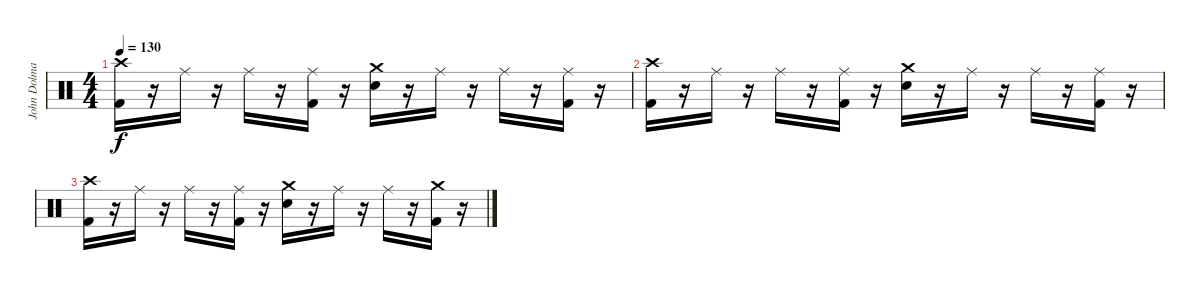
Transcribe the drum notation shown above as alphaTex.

\track ("John Dolmayan" "John Dolma") {instrument percussion}
\staff {score}
\articulation defaults
\ts (4 4)
\tempo 130
\clef neutral
\ks c
("Crash high (hit)" "Kick (hit) 2").16{dy f} r.16 "Ride (middle)".16 r.16 "Ride (middle)".16 r.16 ("Ride (middle)" "Kick (hit) 2").16 r.16 ("Crash medium (hit)" "Electric Snare (hit)").16 r.16 "Ride (middle)".16 r.16 "Ride (middle)".16 r.16 ("Ride (middle)" "Kick (hit) 2").16 r.16 |
("Crash high (hit)" "Kick (hit) 2").16 r.16 "Ride (middle)".16 r.16 "Ride (middle)".16 r.16 ("Ride (middle)" "Kick (hit) 2").16 r.16 ("Crash medium (hit)" "Electric Snare (hit)").16 r.16 "Ride (middle)".16 r.16 "Ride (middle)".16 r.16 ("Ride (middle)" "Kick (hit) 2").16 r.16 |
("Crash high (hit)" "Kick (hit) 2").16 r.16 "Ride (middle)".16 r.16 "Ride (middle)".16 r.16 ("Ride (middle)" "Kick (hit) 2").16 r.16 ("Crash medium (hit)" "Electric Snare (hit)").16 r.16 "Ride (middle)".16 r.16 "Ride (middle)".16 r.16 ("Crash medium (hit)" "Kick (hit) 2").16 r.16
